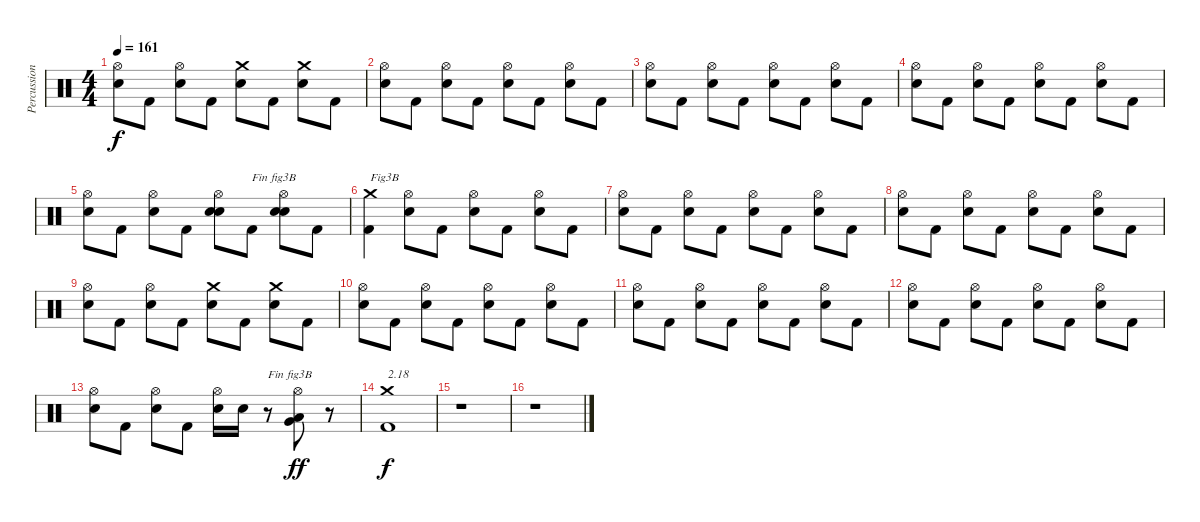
\track ("Percussions" "Percussion") {instrument percussion}
\staff {score}
\articulation defaults
\ts (4 4)
\tempo 161
\clef neutral
\ks c
("Electric Snare (hit)" "Hi-Hat (open)").8{dy f} "Kick (hit) 2".8 ("Electric Snare (hit)" "Hi-Hat (open)").8 "Kick (hit) 2".8 ("Electric Snare (hit)" "Crash medium (hit)").8 "Kick (hit) 2".8 ("Electric Snare (hit)" "Crash medium (hit)").8 "Kick (hit) 2".8 |
("Electric Snare (hit)" "Hi-Hat (open)").8 "Kick (hit) 2".8 ("Electric Snare (hit)" "Hi-Hat (open)").8 "Kick (hit) 2".8 ("Electric Snare (hit)" "Hi-Hat (open)").8 "Kick (hit) 2".8 ("Electric Snare (hit)" "Hi-Hat (open)").8 "Kick (hit) 2".8 |
("Electric Snare (hit)" "Hi-Hat (open)").8 "Kick (hit) 2".8 ("Electric Snare (hit)" "Hi-Hat (open)").8 "Kick (hit) 2".8 ("Electric Snare (hit)" "Hi-Hat (open)").8 "Kick (hit) 2".8 ("Electric Snare (hit)" "Hi-Hat (open)").8 "Kick (hit) 2".8 |
("Electric Snare (hit)" "Hi-Hat (open)").8 "Kick (hit) 2".8 ("Electric Snare (hit)" "Hi-Hat (open)").8 "Kick (hit) 2".8 ("Electric Snare (hit)" "Hi-Hat (open)").8 "Kick (hit) 2".8 ("Electric Snare (hit)" "Hi-Hat (open)").8 "Kick (hit) 2".8 |
("Electric Snare (hit)" "Hi-Hat (open)").8 "Kick (hit) 2".8 ("Electric Snare (hit)" "Hi-Hat (open)").8 "Kick (hit) 2".8 ("Electric Snare (hit)" "Electric Snare (hit)" "Hi-Hat (open)").8 "Kick (hit) 2".8{txt "Fin fig3B"} ("Electric Snare (hit)" "Electric Snare (hit)" "Hi-Hat (open)").8 "Kick (hit) 2".8 |
("Kick (hit) 2" "Crash medium (hit)").4{txt "Fig3B"} ("Electric Snare (hit)" "Hi-Hat (open)").8 "Kick (hit) 2".8 ("Electric Snare (hit)" "Hi-Hat (open)").8 "Kick (hit) 2".8 ("Electric Snare (hit)" "Hi-Hat (open)").8 "Kick (hit) 2".8 |
("Electric Snare (hit)" "Hi-Hat (open)").8 "Kick (hit) 2".8 ("Electric Snare (hit)" "Hi-Hat (open)").8 "Kick (hit) 2".8 ("Electric Snare (hit)" "Hi-Hat (open)").8 "Kick (hit) 2".8 ("Electric Snare (hit)" "Hi-Hat (open)").8 "Kick (hit) 2".8 |
("Electric Snare (hit)" "Hi-Hat (open)").8 "Kick (hit) 2".8 ("Electric Snare (hit)" "Hi-Hat (open)").8 "Kick (hit) 2".8 ("Electric Snare (hit)" "Hi-Hat (open)").8 "Kick (hit) 2".8 ("Electric Snare (hit)" "Hi-Hat (open)").8 "Kick (hit) 2".8 |
("Electric Snare (hit)" "Hi-Hat (open)").8 "Kick (hit) 2".8 ("Electric Snare (hit)" "Hi-Hat (open)").8 "Kick (hit) 2".8 ("Electric Snare (hit)" "Crash medium (hit)").8 "Kick (hit) 2".8 ("Electric Snare (hit)" "Crash medium (hit)").8 "Kick (hit) 2".8 |
("Electric Snare (hit)" "Hi-Hat (open)").8 "Kick (hit) 2".8 ("Electric Snare (hit)" "Hi-Hat (open)").8 "Kick (hit) 2".8 ("Electric Snare (hit)" "Hi-Hat (open)").8 "Kick (hit) 2".8 ("Electric Snare (hit)" "Hi-Hat (open)").8 "Kick (hit) 2".8 |
("Electric Snare (hit)" "Hi-Hat (open)").8 "Kick (hit) 2".8 ("Electric Snare (hit)" "Hi-Hat (open)").8 "Kick (hit) 2".8 ("Electric Snare (hit)" "Hi-Hat (open)").8 "Kick (hit) 2".8 ("Electric Snare (hit)" "Hi-Hat (open)").8 "Kick (hit) 2".8 |
("Electric Snare (hit)" "Hi-Hat (open)").8 "Kick (hit) 2".8 ("Electric Snare (hit)" "Hi-Hat (open)").8 "Kick (hit) 2".8 ("Electric Snare (hit)" "Hi-Hat (open)").8 "Kick (hit) 2".8 ("Electric Snare (hit)" "Hi-Hat (open)").8 "Kick (hit) 2".8 |
("Electric Snare (hit)" "Hi-Hat (open)").8 "Kick (hit) 2".8 ("Electric Snare (hit)" "Hi-Hat (open)").8 "Kick (hit) 2".8 ("Electric Snare (hit)" "Hi-Hat (open)").16 "Electric Snare (hit)".16 r.8{txt "Fin fig3B"} ("Very Low Tom (hit)" "Low Floor Tom (hit)" "Hi-Hat (open)").8{dy ff} r.8 |
("Kick (hit) 2" "Crash medium (hit)").1{txt "2.18" dy f} |
r.1 |
r.1
